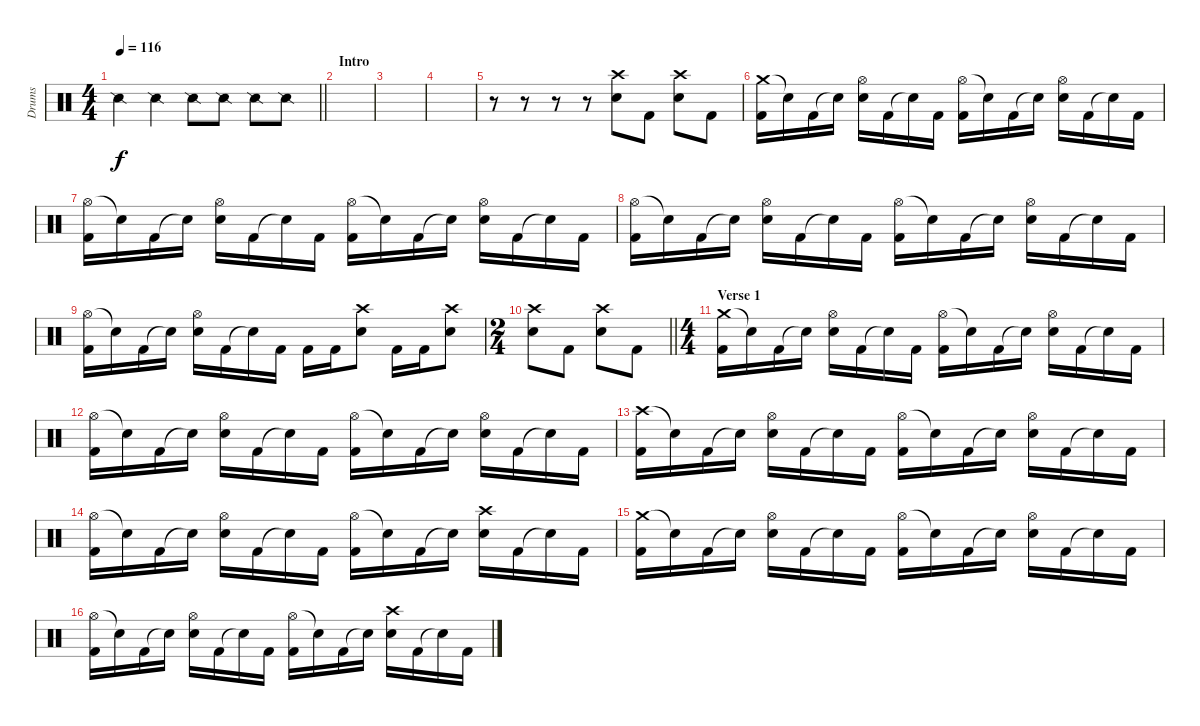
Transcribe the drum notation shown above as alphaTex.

\track ("Drums" "Drums") {instrument percussion}
\staff {score}
\articulation defaults
\ts (4 4)
\tempo 116
\clef neutral
\barLineRight lightlight
\ks c "Snare (side stick) 2".4{dy f} "Snare (side stick) 2".4 "Snare (side stick) 2".8 "Snare (side stick) 2".8 "Snare (side stick) 2".8 "Snare (side stick) 2".8
|
\section ("" "Intro")
|
|
|
r.8 r.8 r.8 r.8 ("Crash high (hit)" "Snare (hit) 2").8 "Kick (hit) 2".8 ("Crash high (hit)" "Snare (hit) 2").8 "Kick (hit) 2".8 |
("Crash medium (hit)" "Kick (hit) 2").16 "Snare (hit)"{t}.16 "Kick (hit) 2".16 "Snare (hit)"{t}.16 ("Hi-Hat (open)" "Snare (hit) 2").16 "Kick (hit) 2".16 "Snare (hit)"{t}.16 "Kick (hit) 2".16 ("Hi-Hat (open)" "Kick (hit) 2").16 "Snare (hit)"{t}.16 "Kick (hit) 2".16 "Snare (hit)"{t}.16 ("Hi-Hat (open)" "Snare (hit) 2").16 "Kick (hit) 2".16 "Snare (hit)"{t}.16 "Kick (hit) 2".16 |
("Hi-Hat (open)" "Kick (hit) 2").16 "Snare (hit)"{t}.16 "Kick (hit) 2".16 "Snare (hit)"{t}.16 ("Hi-Hat (open)" "Snare (hit) 2").16 "Kick (hit) 2".16 "Snare (hit)"{t}.16 "Kick (hit) 2".16 ("Hi-Hat (open)" "Kick (hit) 2").16 "Snare (hit)"{t}.16 "Kick (hit) 2".16 "Snare (hit)"{t}.16 ("Hi-Hat (open)" "Snare (hit) 2").16 "Kick (hit) 2".16 "Snare (hit)"{t}.16 "Kick (hit) 2".16 |
("Hi-Hat (open)" "Kick (hit) 2").16 "Snare (hit)"{t}.16 "Kick (hit) 2".16 "Snare (hit)"{t}.16 ("Hi-Hat (open)" "Snare (hit) 2").16 "Kick (hit) 2".16 "Snare (hit)"{t}.16 "Kick (hit) 2".16 ("Hi-Hat (open)" "Kick (hit) 2").16 "Snare (hit)"{t}.16 "Kick (hit) 2".16 "Snare (hit)"{t}.16 ("Hi-Hat (open)" "Snare (hit) 2").16 "Kick (hit) 2".16 "Snare (hit)"{t}.16 "Kick (hit) 2".16 |
("Hi-Hat (open)" "Kick (hit) 2").16 "Snare (hit)"{t}.16 "Kick (hit) 2".16 "Snare (hit)"{t}.16 ("Hi-Hat (open)" "Snare (hit) 2").16 "Kick (hit) 2".16 "Snare (hit)"{t}.16 "Kick (hit) 2".16 "Kick (hit) 2".16 "Kick (hit) 2".16 ("Crash high (hit)" "Snare (hit) 2").8 "Kick (hit) 2".16 "Kick (hit) 2".16 ("Crash high (hit)" "Snare (hit) 2").8 |
\ts (2 4)
\barLineRight lightlight
("Crash high (hit)" "Snare (hit) 2").8 "Kick (hit) 2".8 ("Crash high (hit)" "Snare (hit) 2").8 "Kick (hit) 2".8 |
\ts (4 4)
\section ("" "Verse 1")
("Crash medium (hit)" "Kick (hit) 2").16 "Snare (hit)"{t}.16 "Kick (hit) 2".16 "Snare (hit)"{t}.16 ("Hi-Hat (open)" "Snare (hit) 2").16 "Kick (hit) 2".16 "Snare (hit)"{t}.16 "Kick (hit) 2".16 ("Hi-Hat (open)" "Kick (hit) 2").16 "Snare (hit)"{t}.16 "Kick (hit) 2".16 "Snare (hit)"{t}.16 ("Hi-Hat (open)" "Snare (hit) 2").16 "Kick (hit) 2".16 "Snare (hit)"{t}.16 "Kick (hit) 2".16 |
("Hi-Hat (open)" "Kick (hit) 2").16 "Snare (hit)"{t}.16 "Kick (hit) 2".16 "Snare (hit)"{t}.16 ("Hi-Hat (open)" "Snare (hit) 2").16 "Kick (hit) 2".16 "Snare (hit)"{t}.16 "Kick (hit) 2".16 ("Hi-Hat (open)" "Kick (hit) 2").16 "Snare (hit)"{t}.16 "Kick (hit) 2".16 "Snare (hit)"{t}.16 ("Hi-Hat (open)" "Snare (hit) 2").16 "Kick (hit) 2".16 "Snare (hit)"{t}.16 "Kick (hit) 2".16 |
("Crash high (hit)" "Kick (hit) 2").16 "Snare (hit)"{t}.16 "Kick (hit) 2".16 "Snare (hit)"{t}.16 ("Hi-Hat (open)" "Snare (hit) 2").16 "Kick (hit) 2".16 "Snare (hit)"{t}.16 "Kick (hit) 2".16 ("Hi-Hat (open)" "Kick (hit) 2").16 "Snare (hit)"{t}.16 "Kick (hit) 2".16 "Snare (hit)"{t}.16 ("Hi-Hat (open)" "Snare (hit) 2").16 "Kick (hit) 2".16 "Snare (hit)"{t}.16 "Kick (hit) 2".16 |
("Hi-Hat (open)" "Kick (hit) 2").16 "Snare (hit)"{t}.16 "Kick (hit) 2".16 "Snare (hit)"{t}.16 ("Hi-Hat (open)" "Snare (hit) 2").16 "Kick (hit) 2".16 "Snare (hit)"{t}.16 "Kick (hit) 2".16 ("Hi-Hat (open)" "Kick (hit) 2").16 "Snare (hit)"{t}.16 "Kick (hit) 2".16 "Snare (hit)"{t}.16 ("Crash high (hit)" "Snare (hit) 2").16 "Kick (hit) 2".16 "Snare (hit)"{t}.16 "Kick (hit) 2".16 |
("Crash medium (hit)" "Kick (hit) 2").16 "Snare (hit)"{t}.16 "Kick (hit) 2".16 "Snare (hit)"{t}.16 ("Hi-Hat (open)" "Snare (hit) 2").16 "Kick (hit) 2".16 "Snare (hit)"{t}.16 "Kick (hit) 2".16 ("Hi-Hat (open)" "Kick (hit) 2").16 "Snare (hit)"{t}.16 "Kick (hit) 2".16 "Snare (hit)"{t}.16 ("Hi-Hat (open)" "Snare (hit) 2").16 "Kick (hit) 2".16 "Snare (hit)"{t}.16 "Kick (hit) 2".16 |
("Hi-Hat (open)" "Kick (hit) 2").16 "Snare (hit)"{t}.16 "Kick (hit) 2".16 "Snare (hit)"{t}.16 ("Hi-Hat (open)" "Snare (hit) 2").16 "Kick (hit) 2".16 "Snare (hit)"{t}.16 "Kick (hit) 2".16 ("Hi-Hat (open)" "Kick (hit) 2").16 "Snare (hit)"{t}.16 "Kick (hit) 2".16 "Snare (hit)"{t}.16 ("Crash high (hit)" "Snare (hit) 2").16 "Kick (hit) 2".16 "Snare (hit)"{t}.16 "Kick (hit) 2".16
